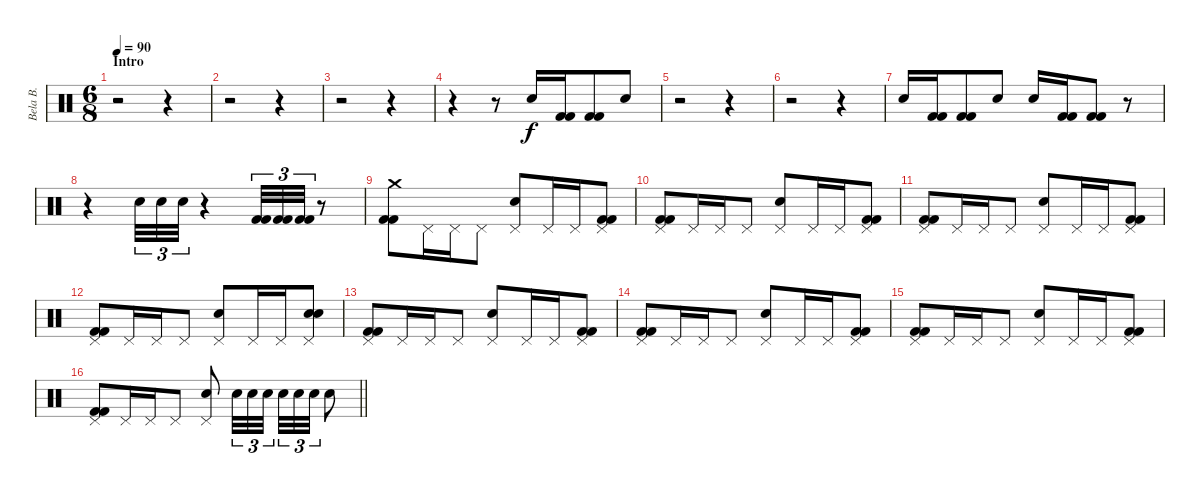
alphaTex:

\track ("Bela B." "Bela B.") {instrument percussion}
\staff {score}
\articulation defaults
\ts (6 8)
\section ("" "Intro")
\tempo 90
\clef neutral
\ks aminor
r.2{dy f} r.4 |
r.2 r.4 |
r.2 r.4 |
r.4 r.8 "Snare (hit) 2".16 ("Kick (hit) 2" "Kick (hit) 2").16 ("Kick (hit) 2" "Kick (hit) 2").8 "Snare (hit) 2".8 |
r.2 r.4 |
r.2 r.4 |
"Snare (hit) 2".16 ("Kick (hit) 2" "Kick (hit) 2").16 ("Kick (hit) 2" "Kick (hit) 2").8 "Snare (hit) 2".8 "Snare (hit) 2".16 ("Kick (hit) 2" "Kick (hit) 2").16 ("Kick (hit) 2" "Kick (hit) 2").8 r.8 |
r.4 "Snare (hit) 2".32{tu (3 2)} "Snare (hit) 2".32{tu (3 2)} "Snare (hit) 2".32{tu (3 2)} r.4 ("Kick (hit) 2" "Kick (hit) 2").32{tu (3 2)} ("Kick (hit) 2" "Kick (hit) 2").32{tu (3 2)} ("Kick (hit) 2" "Kick (hit) 2").32{tu (3 2)} r.8 |
("Crash medium (hit)" "Kick (hit) 2" "Kick (hit) 2").8 "Pedal Hi-Hat (hit)".16 "Pedal Hi-Hat (hit)".16 "Pedal Hi-Hat (hit)".8 ("Pedal Hi-Hat (hit)" "Snare (hit) 2").8 "Pedal Hi-Hat (hit)".16 "Pedal Hi-Hat (hit)".16 ("Pedal Hi-Hat (hit)" "Kick (hit) 2" "Kick (hit) 2").8 |
("Pedal Hi-Hat (hit)" "Kick (hit) 2" "Kick (hit) 2").8 "Pedal Hi-Hat (hit)".16 "Pedal Hi-Hat (hit)".16 "Pedal Hi-Hat (hit)".8 ("Pedal Hi-Hat (hit)" "Snare (hit) 2").8 "Pedal Hi-Hat (hit)".16 "Pedal Hi-Hat (hit)".16 ("Pedal Hi-Hat (hit)" "Kick (hit) 2" "Kick (hit) 2").8 |
("Pedal Hi-Hat (hit)" "Kick (hit) 2" "Kick (hit) 2").8 "Pedal Hi-Hat (hit)".16 "Pedal Hi-Hat (hit)".16 "Pedal Hi-Hat (hit)".8 ("Pedal Hi-Hat (hit)" "Snare (hit) 2").8 "Pedal Hi-Hat (hit)".16 "Pedal Hi-Hat (hit)".16 ("Pedal Hi-Hat (hit)" "Kick (hit) 2" "Kick (hit) 2").8 |
("Pedal Hi-Hat (hit)" "Kick (hit) 2" "Kick (hit) 2").8 "Pedal Hi-Hat (hit)".16 "Pedal Hi-Hat (hit)".16 "Pedal Hi-Hat (hit)".8 ("Pedal Hi-Hat (hit)" "Snare (hit) 2").8 "Pedal Hi-Hat (hit)".16 "Pedal Hi-Hat (hit)".16 ("Pedal Hi-Hat (hit)" "Electric Snare (hit)" "Snare (hit) 2").8 |
("Pedal Hi-Hat (hit)" "Kick (hit) 2" "Kick (hit) 2").8 "Pedal Hi-Hat (hit)".16 "Pedal Hi-Hat (hit)".16 "Pedal Hi-Hat (hit)".8 ("Pedal Hi-Hat (hit)" "Snare (hit) 2").8 "Pedal Hi-Hat (hit)".16 "Pedal Hi-Hat (hit)".16 ("Pedal Hi-Hat (hit)" "Kick (hit) 2" "Kick (hit) 2").8 |
("Pedal Hi-Hat (hit)" "Kick (hit) 2" "Kick (hit) 2").8 "Pedal Hi-Hat (hit)".16 "Pedal Hi-Hat (hit)".16 "Pedal Hi-Hat (hit)".8 ("Pedal Hi-Hat (hit)" "Snare (hit) 2").8 "Pedal Hi-Hat (hit)".16 "Pedal Hi-Hat (hit)".16 ("Pedal Hi-Hat (hit)" "Kick (hit) 2" "Kick (hit) 2").8 |
("Pedal Hi-Hat (hit)" "Kick (hit) 2" "Kick (hit) 2").8 "Pedal Hi-Hat (hit)".16 "Pedal Hi-Hat (hit)".16 "Pedal Hi-Hat (hit)".8 ("Pedal Hi-Hat (hit)" "Snare (hit) 2").8 "Pedal Hi-Hat (hit)".16 "Pedal Hi-Hat (hit)".16 ("Pedal Hi-Hat (hit)" "Kick (hit) 2" "Kick (hit) 2").8 |
\barLineRight lightlight
("Pedal Hi-Hat (hit)" "Kick (hit) 2" "Kick (hit) 2").8 "Pedal Hi-Hat (hit)".16 "Pedal Hi-Hat (hit)".16 "Pedal Hi-Hat (hit)".8 ("Pedal Hi-Hat (hit)" "Snare (hit) 2").8 "Snare (hit) 2".32{tu (3 2)} "Snare (hit) 2".32{tu (3 2)} "Snare (hit) 2".32{tu (3 2)} "Snare (hit) 2".32{tu (3 2)} "Snare (hit) 2".32{tu (3 2)} "Snare (hit) 2".32{tu (3 2)} "Snare (hit) 2".8
